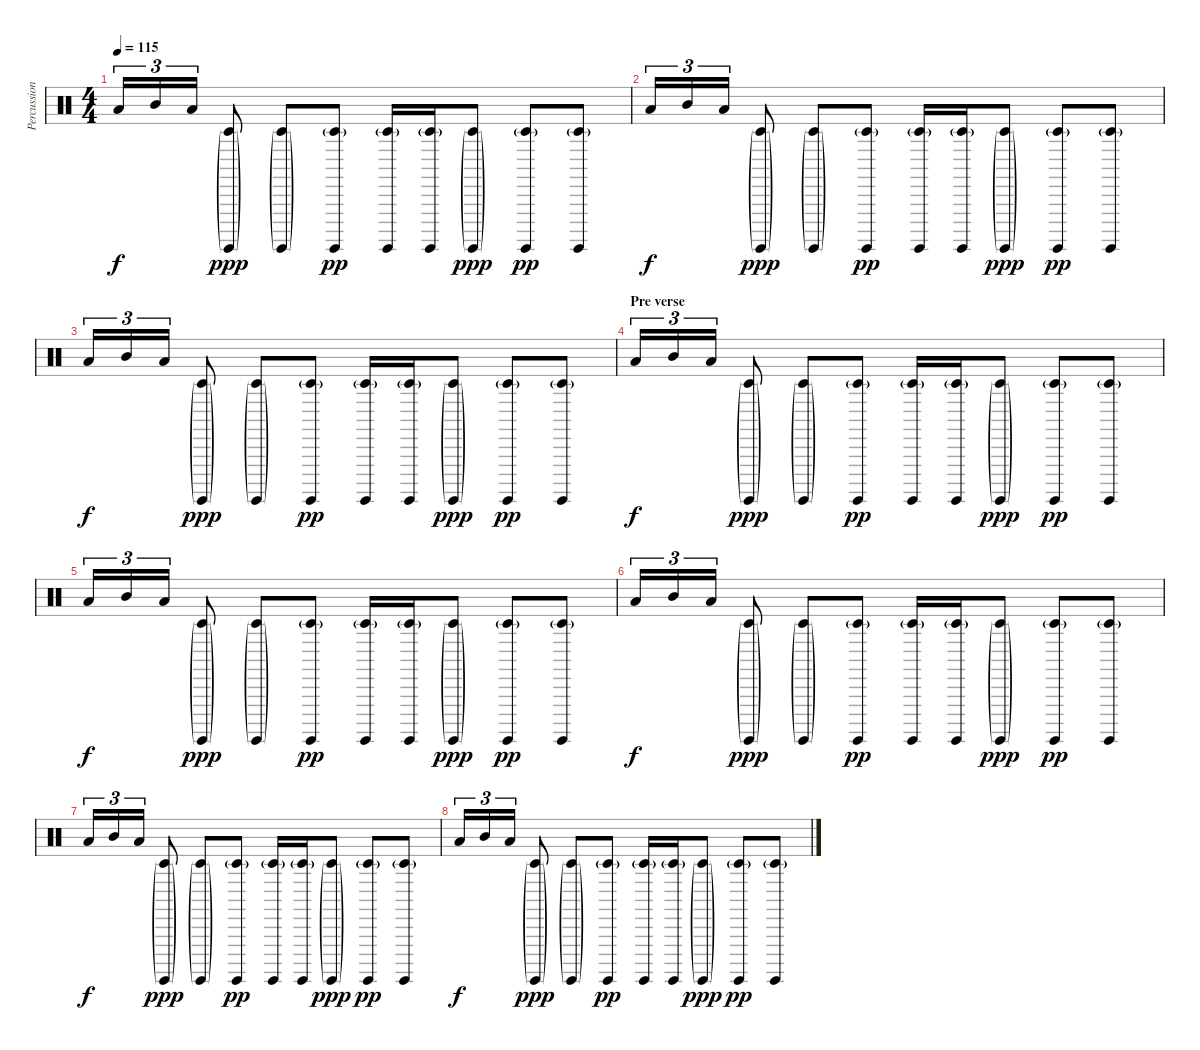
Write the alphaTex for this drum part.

\track ("Percussion - Low Tom" "Percussion") {instrument percussion}
\staff {score}
\articulation defaults
\ts (4 4)
\tempo 115
\clef neutral
\ks c "Low Tom (hit)".16{tu (3 2) dy f} "Mid Tom (hit)".16{tu (3 2)} "Low Tom (hit)".16{tu (3 2)}
("Timbale low (hit)"{g} "Surdo (hit)"{g}).8{dy ppp} ("Timbale low (hit)"{g} "Surdo (hit)"{g}).8 ("Timbale low (hit)"{g} "Surdo (hit)").8{dy pp} ("Timbale low (hit)"{g} "Surdo (hit)").16 ("Timbale low (hit)"{g} "Surdo (hit)").16 ("Timbale low (hit)"{g} "Surdo (hit)"{g}).8{dy ppp} ("Timbale low (hit)"{g} "Surdo (hit)").8{dy pp} ("Timbale low (hit)"{g} "Surdo (hit)").8 |
"Low Tom (hit)".16{tu (3 2) dy f} "Mid Tom (hit)".16{tu (3 2)} "Low Tom (hit)".16{tu (3 2)} ("Timbale low (hit)"{g} "Surdo (hit)"{g}).8{dy ppp} ("Timbale low (hit)"{g} "Surdo (hit)"{g}).8 ("Timbale low (hit)"{g} "Surdo (hit)").8{dy pp} ("Timbale low (hit)"{g} "Surdo (hit)").16 ("Timbale low (hit)"{g} "Surdo (hit)").16 ("Timbale low (hit)"{g} "Surdo (hit)"{g}).8{dy ppp} ("Timbale low (hit)"{g} "Surdo (hit)").8{dy pp} ("Timbale low (hit)"{g} "Surdo (hit)").8 |
"Low Tom (hit)".16{tu (3 2) dy f} "Mid Tom (hit)".16{tu (3 2)} "Low Tom (hit)".16{tu (3 2)} ("Timbale low (hit)"{g} "Surdo (hit)"{g}).8{dy ppp} ("Timbale low (hit)"{g} "Surdo (hit)"{g}).8 ("Timbale low (hit)"{g} "Surdo (hit)").8{dy pp} ("Timbale low (hit)"{g} "Surdo (hit)").16 ("Timbale low (hit)"{g} "Surdo (hit)").16 ("Timbale low (hit)"{g} "Surdo (hit)"{g}).8{dy ppp} ("Timbale low (hit)"{g} "Surdo (hit)").8{dy pp} ("Timbale low (hit)"{g} "Surdo (hit)").8 |
\section ("" "Pre verse")
"Low Tom (hit)".16{tu (3 2) dy f} "Mid Tom (hit)".16{tu (3 2)} "Low Tom (hit)".16{tu (3 2)} ("Timbale low (hit)"{g} "Surdo (hit)"{g}).8{dy ppp} ("Timbale low (hit)"{g} "Surdo (hit)"{g}).8 ("Timbale low (hit)"{g} "Surdo (hit)").8{dy pp} ("Timbale low (hit)"{g} "Surdo (hit)").16 ("Timbale low (hit)"{g} "Surdo (hit)").16 ("Timbale low (hit)"{g} "Surdo (hit)"{g}).8{dy ppp} ("Timbale low (hit)"{g} "Surdo (hit)").8{dy pp} ("Timbale low (hit)"{g} "Surdo (hit)").8 |
"Low Tom (hit)".16{tu (3 2) dy f} "Mid Tom (hit)".16{tu (3 2)} "Low Tom (hit)".16{tu (3 2)} ("Timbale low (hit)"{g} "Surdo (hit)"{g}).8{dy ppp} ("Timbale low (hit)"{g} "Surdo (hit)"{g}).8 ("Timbale low (hit)"{g} "Surdo (hit)").8{dy pp} ("Timbale low (hit)"{g} "Surdo (hit)").16 ("Timbale low (hit)"{g} "Surdo (hit)").16 ("Timbale low (hit)"{g} "Surdo (hit)"{g}).8{dy ppp} ("Timbale low (hit)"{g} "Surdo (hit)").8{dy pp} ("Timbale low (hit)"{g} "Surdo (hit)").8 |
"Low Tom (hit)".16{tu (3 2) dy f} "Mid Tom (hit)".16{tu (3 2)} "Low Tom (hit)".16{tu (3 2)} ("Timbale low (hit)"{g} "Surdo (hit)"{g}).8{dy ppp} ("Timbale low (hit)"{g} "Surdo (hit)"{g}).8 ("Timbale low (hit)"{g} "Surdo (hit)").8{dy pp} ("Timbale low (hit)"{g} "Surdo (hit)").16 ("Timbale low (hit)"{g} "Surdo (hit)").16 ("Timbale low (hit)"{g} "Surdo (hit)"{g}).8{dy ppp} ("Timbale low (hit)"{g} "Surdo (hit)").8{dy pp} ("Timbale low (hit)"{g} "Surdo (hit)").8 |
"Low Tom (hit)".16{tu (3 2) dy f} "Mid Tom (hit)".16{tu (3 2)} "Low Tom (hit)".16{tu (3 2)} ("Timbale low (hit)"{g} "Surdo (hit)"{g}).8{dy ppp} ("Timbale low (hit)"{g} "Surdo (hit)"{g}).8 ("Timbale low (hit)"{g} "Surdo (hit)").8{dy pp} ("Timbale low (hit)"{g} "Surdo (hit)").16 ("Timbale low (hit)"{g} "Surdo (hit)").16 ("Timbale low (hit)"{g} "Surdo (hit)"{g}).8{dy ppp} ("Timbale low (hit)"{g} "Surdo (hit)").8{dy pp} ("Timbale low (hit)"{g} "Surdo (hit)").8 |
"Low Tom (hit)".16{tu (3 2) dy f} "Mid Tom (hit)".16{tu (3 2)} "Low Tom (hit)".16{tu (3 2)} ("Timbale low (hit)"{g} "Surdo (hit)"{g}).8{dy ppp} ("Timbale low (hit)"{g} "Surdo (hit)"{g}).8 ("Timbale low (hit)"{g} "Surdo (hit)").8{dy pp} ("Timbale low (hit)"{g} "Surdo (hit)").16 ("Timbale low (hit)"{g} "Surdo (hit)").16 ("Timbale low (hit)"{g} "Surdo (hit)"{g}).8{dy ppp} ("Timbale low (hit)"{g} "Surdo (hit)").8{dy pp} ("Timbale low (hit)"{g} "Surdo (hit)").8
